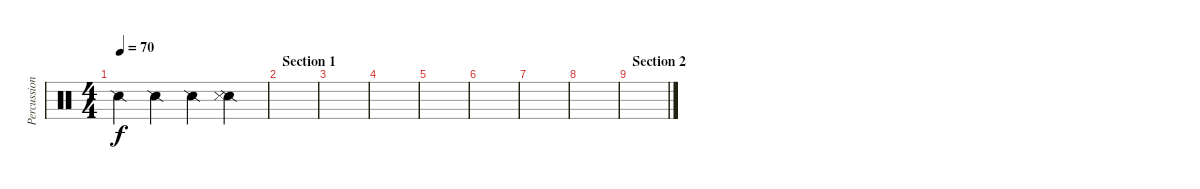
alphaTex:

\track ("Percussion" "Percussion") {instrument percussion}
\staff {score}
\articulation defaults
\ts (4 4)
\tempo 70
\clef neutral
\ks c "Snare (side stick) 2".4{dy f} "Snare (side stick) 2".4 "Snare (side stick) 2".4
("Snare (side stick) 2" "Snare (side stick) 3").4 |
\section ("" "Section 1")
|
|
|
|
|
|
|
\section ("" "Section 2")
